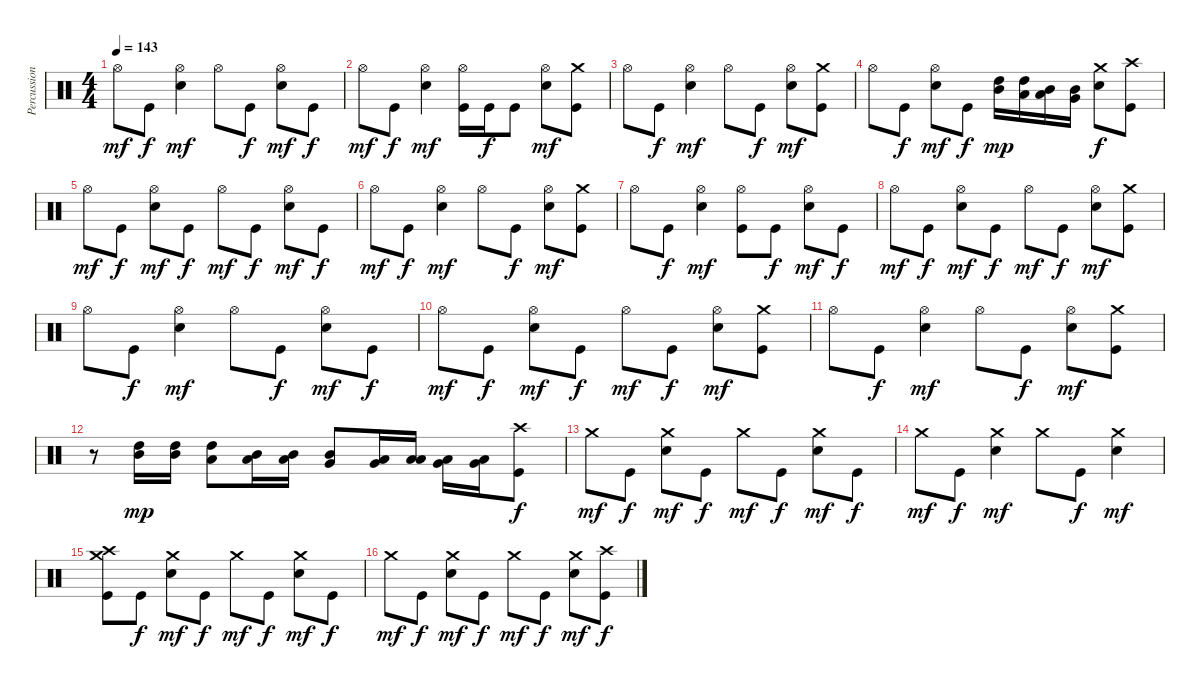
\track ("Percussions" "Percussion") {instrument percussion}
\staff {score}
\articulation defaults
\ts (4 4)
\tempo 143
\clef neutral
\ks c "Hi-Hat (open)".8{dy mf} "Kick (hit)".8{dy f}
("Electric Snare (hit)" "Hi-Hat (open)").4{dy mf} "Hi-Hat (open)".8 "Kick (hit)".8{dy f} ("Electric Snare (hit)" "Hi-Hat (open)").8{dy mf} "Kick (hit)".8{dy f} |
"Hi-Hat (open)".8{dy mf} "Kick (hit)".8{dy f} ("Electric Snare (hit)" "Hi-Hat (open)").4{dy mf} ("Kick (hit)" "Hi-Hat (open)").16 "Kick (hit)".16{dy f} "Kick (hit)".8 ("Electric Snare (hit)" "Hi-Hat (open)").8{dy mf} ("Kick (hit)" "Crash medium (hit)").8 |
"Hi-Hat (open)".8 "Kick (hit)".8{dy f} ("Electric Snare (hit)" "Hi-Hat (open)").4{dy mf} "Hi-Hat (open)".8 "Kick (hit)".8{dy f} ("Electric Snare (hit)" "Hi-Hat (open)").8{dy mf} ("Kick (hit)" "Crash medium (hit)").8 |
"Hi-Hat (open)".8 "Kick (hit)".8{dy f} ("Electric Snare (hit)" "Hi-Hat (open)").8{dy mf} "Kick (hit)".8{dy f} ("Mid Tom (hit)" "High Tom (hit)").16{dy mp} ("Low Tom (hit)" "High Tom (hit)").16 ("Low Tom (hit)" "Mid Tom (hit)").16 ("Very Low Tom (hit)" "Mid Tom (hit)").16 ("Electric Snare (hit)" "Crash medium (hit)").8{dy f} ("Kick (hit)" "Crash high (hit)").8 |
"Hi-Hat (open)".8{dy mf} "Kick (hit)".8{dy f} ("Electric Snare (hit)" "Hi-Hat (open)").8{dy mf} "Kick (hit)".8{dy f} "Hi-Hat (open)".8{dy mf} "Kick (hit)".8{dy f} ("Electric Snare (hit)" "Hi-Hat (open)").8{dy mf} "Kick (hit)".8{dy f} |
"Hi-Hat (open)".8{dy mf} "Kick (hit)".8{dy f} ("Electric Snare (hit)" "Hi-Hat (open)").4{dy mf} "Hi-Hat (open)".8 "Kick (hit)".8{dy f} ("Electric Snare (hit)" "Hi-Hat (open)").8{dy mf} ("Kick (hit)" "Crash medium (hit)").8 |
"Hi-Hat (open)".8 "Kick (hit)".8{dy f} ("Electric Snare (hit)" "Hi-Hat (open)").4{dy mf} ("Kick (hit)" "Hi-Hat (open)").8 "Kick (hit)".8{dy f} ("Electric Snare (hit)" "Hi-Hat (open)").8{dy mf} "Kick (hit)".8{dy f} |
"Hi-Hat (open)".8{dy mf} "Kick (hit)".8{dy f} ("Electric Snare (hit)" "Hi-Hat (open)").8{dy mf} "Kick (hit)".8{dy f} "Hi-Hat (open)".8{dy mf} "Kick (hit)".8{dy f} ("Electric Snare (hit)" "Hi-Hat (open)").8{dy mf} ("Kick (hit)" "Crash medium (hit)").8 |
"Hi-Hat (open)".8 "Kick (hit)".8{dy f} ("Electric Snare (hit)" "Hi-Hat (open)").4{dy mf} "Hi-Hat (open)".8 "Kick (hit)".8{dy f} ("Electric Snare (hit)" "Hi-Hat (open)").8{dy mf} "Kick (hit)".8{dy f} |
"Hi-Hat (open)".8{dy mf} "Kick (hit)".8{dy f} ("Electric Snare (hit)" "Hi-Hat (open)").8{dy mf} "Kick (hit)".8{dy f} "Hi-Hat (open)".8{dy mf} "Kick (hit)".8{dy f} ("Electric Snare (hit)" "Hi-Hat (open)").8{dy mf} ("Kick (hit)" "Crash medium (hit)").8 |
"Hi-Hat (open)".8 "Kick (hit)".8{dy f} ("Electric Snare (hit)" "Hi-Hat (open)").4{dy mf} "Hi-Hat (open)".8 "Kick (hit)".8{dy f} ("Electric Snare (hit)" "Hi-Hat (open)").8{dy mf} ("Kick (hit)" "Crash medium (hit)").8 |
r.8 ("Mid Tom (hit)" "High Tom (hit)").16{dy mp} ("Mid Tom (hit)" "High Tom (hit)").16 ("Low Tom (hit)" "High Tom (hit)").8 ("Low Tom (hit)" "Mid Tom (hit)").16 ("Low Tom (hit)" "Mid Tom (hit)").16 ("Very Low Tom (hit)" "Mid Tom (hit)").8 ("Very Low Tom (hit)" "Low Tom (hit)").16 ("Low Floor Tom (hit)" "Low Tom (hit)").16 ("Low Floor Tom (hit)" "Very Low Tom (hit)").16 ("Low Floor Tom (hit)" "Very Low Tom (hit)").16 ("Kick (hit)" "Crash high (hit)").8{dy f} |
"Crash medium (hit)".8{dy mf} "Kick (hit)".8{dy f} ("Electric Snare (hit)" "Crash medium (hit)").8{dy mf} "Kick (hit)".8{dy f} "Crash medium (hit)".8{dy mf} "Kick (hit)".8{dy f} ("Electric Snare (hit)" "Crash medium (hit)").8{dy mf} "Kick (hit)".8{dy f} |
"Crash medium (hit)".8{dy mf} "Kick (hit)".8{dy f} ("Electric Snare (hit)" "Crash medium (hit)").4{dy mf} "Crash medium (hit)".8 "Kick (hit)".8{dy f} ("Electric Snare (hit)" "Crash medium (hit)").4{dy mf} |
("Kick (hit)" "Crash medium (hit)" "Crash high (hit)").8 "Kick (hit)".8{dy f} ("Electric Snare (hit)" "Crash medium (hit)").8{dy mf} "Kick (hit)".8{dy f} "Crash medium (hit)".8{dy mf} "Kick (hit)".8{dy f} ("Electric Snare (hit)" "Crash medium (hit)").8{dy mf} "Kick (hit)".8{dy f} |
"Crash medium (hit)".8{dy mf} "Kick (hit)".8{dy f} ("Electric Snare (hit)" "Crash medium (hit)").8{dy mf} "Kick (hit)".8{dy f} "Crash medium (hit)".8{dy mf} "Kick (hit)".8{dy f} ("Electric Snare (hit)" "Crash medium (hit)").8{dy mf} ("Kick (hit)" "Crash high (hit)").8{dy f}
